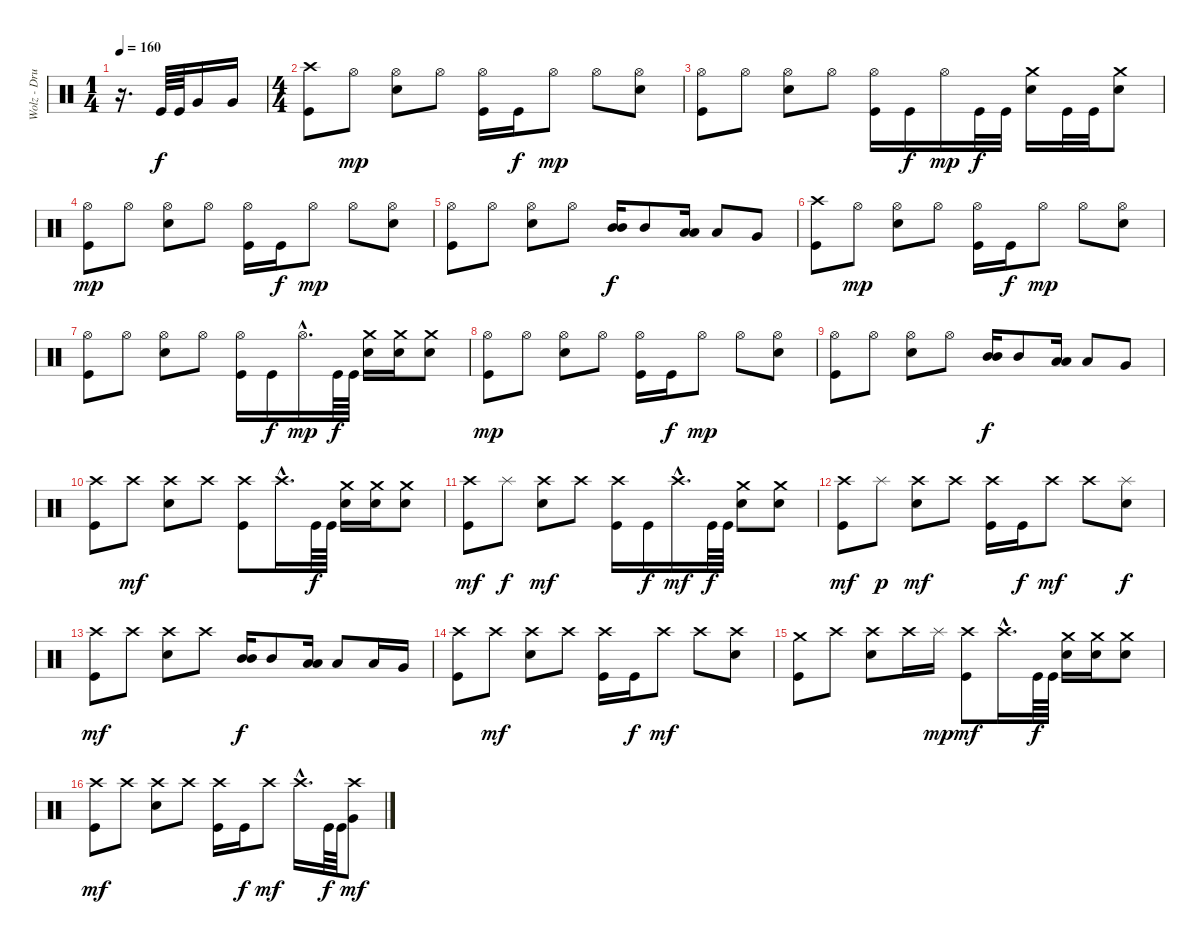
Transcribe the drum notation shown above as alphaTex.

\track ("Wolz - Drums" "Wolz - Dru") {instrument percussion}
\staff {score}
\articulation defaults
\ts (1 4)
\tempo 160
\tempo 70
\tempo 160
\clef neutral
\ks c
r.16{d dy f} "Kick (hit)".64 "Kick (hit)".64 "Very Low Tom (hit)".16 "Very Low Tom (hit)".16 |
\ts (4 4)
("Crash high (hit)" "Kick (hit)").8 "Hi-Hat (open)".8{dy mp} ("Hi-Hat (open)" "Electric Snare (hit)").8 "Hi-Hat (open)".8 ("Hi-Hat (open)" "Kick (hit)").16 "Kick (hit)".16{dy f} "Hi-Hat (open)".8{dy mp} "Hi-Hat (open)".8 ("Hi-Hat (open)" "Electric Snare (hit)").8 |
("Hi-Hat (open)" "Kick (hit)").8 "Hi-Hat (open)".8 ("Hi-Hat (open)" "Electric Snare (hit)").8 "Hi-Hat (open)".8 ("Hi-Hat (open)" "Kick (hit)").16 "Kick (hit)".16{dy f} "Hi-Hat (open)".16{dy mp} "Kick (hit)".32{dy f} "Kick (hit)".32 ("Crash medium (hit)" "Electric Snare (hit)").16 "Kick (hit)".32 "Kick (hit)".32 ("Crash medium (hit)" "Electric Snare (hit)").8 |
("Hi-Hat (open)" "Kick (hit)").8{dy mp} "Hi-Hat (open)".8 ("Hi-Hat (open)" "Electric Snare (hit)").8 "Hi-Hat (open)".8 ("Hi-Hat (open)" "Kick (hit)").16 "Kick (hit)".16{dy f} "Hi-Hat (open)".8{dy mp} "Hi-Hat (open)".8 ("Hi-Hat (open)" "Electric Snare (hit)").8 |
("Hi-Hat (open)" "Kick (hit)").8 "Hi-Hat (open)".8 ("Hi-Hat (open)" "Electric Snare (hit)").8 "Hi-Hat (open)".8 ("Mid Tom (hit)" "Mid Tom (hit)").16{bu 60 dy f} "Mid Tom (hit)".8 ("Low Tom (hit)" "Low Tom (hit)").16{bu 60} "Low Tom (hit)".8 "Very Low Tom (hit)".8 |
("Crash high (hit)" "Kick (hit)").8 "Hi-Hat (open)".8{dy mp} ("Hi-Hat (open)" "Electric Snare (hit)").8 "Hi-Hat (open)".8 ("Hi-Hat (open)" "Kick (hit)").16 "Kick (hit)".16{dy f} "Hi-Hat (open)".8{dy mp} "Hi-Hat (open)".8 ("Hi-Hat (open)" "Electric Snare (hit)").8 |
("Hi-Hat (open)" "Kick (hit)").8 "Hi-Hat (open)".8 ("Hi-Hat (open)" "Electric Snare (hit)").8 "Hi-Hat (open)".8 ("Hi-Hat (open)" "Kick (hit)").16 "Kick (hit)".16{dy f} "Hi-Hat (open)"{hac}.16{d dy mp} "Kick (hit)".64{dy f} "Kick (hit)".64 ("Crash medium (hit)" "Electric Snare (hit)").16 ("Crash medium (hit)" "Electric Snare (hit)").16 ("Crash medium (hit)" "Electric Snare (hit)").8 |
("Hi-Hat (open)" "Kick (hit)").8{dy mp} "Hi-Hat (open)".8 ("Hi-Hat (open)" "Electric Snare (hit)").8 "Hi-Hat (open)".8 ("Hi-Hat (open)" "Kick (hit)").16 "Kick (hit)".16{dy f} "Hi-Hat (open)".8{dy mp} "Hi-Hat (open)".8 ("Hi-Hat (open)" "Electric Snare (hit)").8 |
("Hi-Hat (open)" "Kick (hit)").8 "Hi-Hat (open)".8 ("Hi-Hat (open)" "Electric Snare (hit)").8 "Hi-Hat (open)".8 ("Mid Tom (hit)" "Mid Tom (hit)").16{bu 60 dy f} "Mid Tom (hit)".8 ("Low Tom (hit)" "Low Tom (hit)").16{bu 60} "Low Tom (hit)".8 "Very Low Tom (hit)".8 |
("Crash high (hit)" "Kick (hit)").8 "Crash high (hit)".8{dy mf} ("Crash high (hit)" "Electric Snare (hit)").8 "Crash high (hit)".8 ("Crash high (hit)" "Kick (hit)").8 "Crash high (hit)"{hac}.16{d} "Kick (hit)".64{dy f} "Kick (hit)".64 ("Crash medium (hit)" "Electric Snare (hit)").16 ("Crash medium (hit)" "Electric Snare (hit)").16 ("Crash medium (hit)" "Electric Snare (hit)").8 |
("Crash high (hit)" "Kick (hit)").8{dy mf} "Splash (hit)".8{dy f} ("Crash high (hit)" "Electric Snare (hit)").8{dy mf} "Crash high (hit)".8 ("Crash high (hit)" "Kick (hit)").16 "Kick (hit)".16{dy f} "Crash high (hit)"{hac}.16{d dy mf} "Kick (hit)".64{dy f} "Kick (hit)".64 ("Crash medium (hit)" "Electric Snare (hit)").8 ("Crash medium (hit)" "Electric Snare (hit)").8 |
("Crash high (hit)" "Kick (hit)").8{dy mf} "Splash (hit)".8{dy p} ("Crash high (hit)" "Electric Snare (hit)").8{dy mf} "Crash high (hit)".8 ("Crash high (hit)" "Kick (hit)").16 "Kick (hit)".16{dy f} "Crash high (hit)".8{dy mf} "Crash high (hit)".8 ("Splash (hit)" "Electric Snare (hit)").8{dy f} |
("Crash high (hit)" "Kick (hit)").8{dy mf} "Crash high (hit)".8 ("Crash high (hit)" "Electric Snare (hit)").8 "Crash high (hit)".8 ("Mid Tom (hit)" "Mid Tom (hit)").16{bu 60 dy f} "Mid Tom (hit)".8 ("Low Tom (hit)" "Low Tom (hit)").16{bu 60} "Low Tom (hit)".8 "Low Tom (hit)".16 "Very Low Tom (hit)".16 |
("Crash high (hit)" "Kick (hit)").8 "Crash high (hit)".8{dy mf} ("Crash high (hit)" "Electric Snare (hit)").8 "Crash high (hit)".8 ("Crash high (hit)" "Kick (hit)").16 "Kick (hit)".16{dy f} "Crash high (hit)".8{dy mf} "Crash high (hit)".8 ("Crash high (hit)" "Electric Snare (hit)").8 |
("Crash medium (hit)" "Kick (hit)").8 "Crash high (hit)".8 ("Crash high (hit)" "Electric Snare (hit)").8 "Crash high (hit)".16 "Splash (hit)".16{dy mp} ("Crash high (hit)" "Kick (hit)").8{dy mf} "Crash high (hit)"{hac}.16{d} "Kick (hit)".64{dy f} "Kick (hit)".64 ("Crash medium (hit)" "Electric Snare (hit)").16 ("Crash medium (hit)" "Electric Snare (hit)").16 ("Crash medium (hit)" "Electric Snare (hit)").8 |
("Crash high (hit)" "Kick (hit)").8{dy mf} "Crash high (hit)".8 ("Crash high (hit)" "Electric Snare (hit)").8 "Crash high (hit)".8 ("Crash high (hit)" "Kick (hit)").16 "Kick (hit)".16{dy f} "Crash high (hit)".8{dy mf} "Crash high (hit)"{hac}.16{d} "Kick (hit)".64{dy f} "Kick (hit)".64 ("Crash high (hit)" "Very Low Tom (hit)").8{dy mf}
